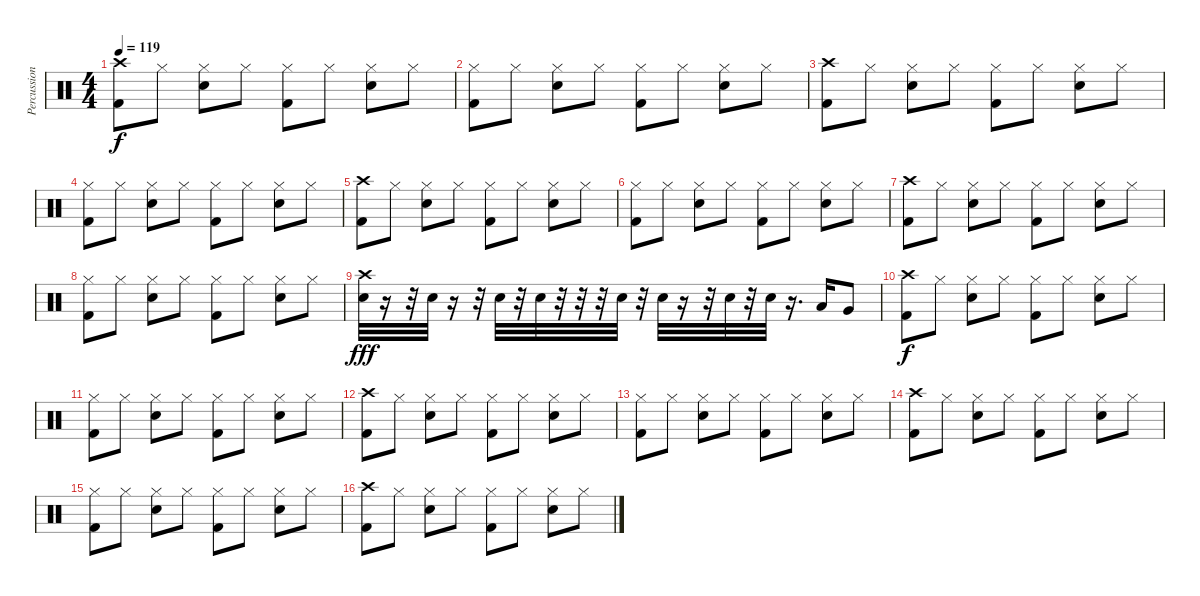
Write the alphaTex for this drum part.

\track ("Percussion" "Percussion") {instrument percussion}
\staff {score}
\articulation defaults
\ts (4 4)
\tempo 119
\clef neutral
\ks c
("Crash high (hit)" "Kick (hit) 2").8{dy f} "Hi-Hat (closed)".8 ("Hi-Hat (closed)" "Electric Snare (hit)").8 "Hi-Hat (closed)".8 ("Hi-Hat (closed)" "Kick (hit) 2").8 "Hi-Hat (closed)".8 ("Hi-Hat (closed)" "Electric Snare (hit)").8 "Hi-Hat (closed)".8 |
("Hi-Hat (closed)" "Kick (hit) 2").8 "Hi-Hat (closed)".8 ("Hi-Hat (closed)" "Electric Snare (hit)").8 "Hi-Hat (closed)".8 ("Hi-Hat (closed)" "Kick (hit) 2").8 "Hi-Hat (closed)".8 ("Hi-Hat (closed)" "Electric Snare (hit)").8 "Hi-Hat (closed)".8 |
("Crash high (hit)" "Kick (hit) 2").8 "Hi-Hat (closed)".8 ("Hi-Hat (closed)" "Electric Snare (hit)").8 "Hi-Hat (closed)".8 ("Hi-Hat (closed)" "Kick (hit) 2").8 "Hi-Hat (closed)".8 ("Hi-Hat (closed)" "Electric Snare (hit)").8 "Hi-Hat (closed)".8 |
("Hi-Hat (closed)" "Kick (hit) 2").8 "Hi-Hat (closed)".8 ("Hi-Hat (closed)" "Electric Snare (hit)").8 "Hi-Hat (closed)".8 ("Hi-Hat (closed)" "Kick (hit) 2").8 "Hi-Hat (closed)".8 ("Hi-Hat (closed)" "Electric Snare (hit)").8 "Hi-Hat (closed)".8 |
("Crash high (hit)" "Kick (hit) 2").8 "Hi-Hat (closed)".8 ("Hi-Hat (closed)" "Electric Snare (hit)").8 "Hi-Hat (closed)".8 ("Hi-Hat (closed)" "Kick (hit) 2").8 "Hi-Hat (closed)".8 ("Hi-Hat (closed)" "Electric Snare (hit)").8 "Hi-Hat (closed)".8 |
("Hi-Hat (closed)" "Kick (hit) 2").8 "Hi-Hat (closed)".8 ("Hi-Hat (closed)" "Electric Snare (hit)").8 "Hi-Hat (closed)".8 ("Hi-Hat (closed)" "Kick (hit) 2").8 "Hi-Hat (closed)".8 ("Hi-Hat (closed)" "Electric Snare (hit)").8 "Hi-Hat (closed)".8 |
("Crash high (hit)" "Kick (hit) 2").8 "Hi-Hat (closed)".8 ("Hi-Hat (closed)" "Electric Snare (hit)").8 "Hi-Hat (closed)".8 ("Hi-Hat (closed)" "Kick (hit) 2").8 "Hi-Hat (closed)".8 ("Hi-Hat (closed)" "Electric Snare (hit)").8 "Hi-Hat (closed)".8 |
("Hi-Hat (closed)" "Kick (hit) 2").8 "Hi-Hat (closed)".8 ("Hi-Hat (closed)" "Electric Snare (hit)").8 "Hi-Hat (closed)".8 ("Hi-Hat (closed)" "Kick (hit) 2").8 "Hi-Hat (closed)".8 ("Hi-Hat (closed)" "Electric Snare (hit)").8 "Hi-Hat (closed)".8 |
("Electric Snare (hit)" "Crash high (hit)").32{dy fff} r.16 r.32 "Electric Snare (hit)".32 r.16 r.32 "Electric Snare (hit)".32 r.32 "Electric Snare (hit)".32 r.32 r.32 r.32 "Electric Snare (hit)".32 r.32 "Electric Snare (hit)".32 r.16 r.32 "Electric Snare (hit)".32 r.32 "Electric Snare (hit)".32 r.16{d} "Low Tom (hit)".16 "Very Low Tom (hit)".8 |
("Crash high (hit)" "Kick (hit) 2").8{dy f} "Hi-Hat (closed)".8 ("Hi-Hat (closed)" "Electric Snare (hit)").8 "Hi-Hat (closed)".8 ("Hi-Hat (closed)" "Kick (hit) 2").8 "Hi-Hat (closed)".8 ("Hi-Hat (closed)" "Electric Snare (hit)").8 "Hi-Hat (closed)".8 |
("Hi-Hat (closed)" "Kick (hit) 2").8 "Hi-Hat (closed)".8 ("Hi-Hat (closed)" "Electric Snare (hit)").8 "Hi-Hat (closed)".8 ("Hi-Hat (closed)" "Kick (hit) 2").8 "Hi-Hat (closed)".8 ("Hi-Hat (closed)" "Electric Snare (hit)").8 "Hi-Hat (closed)".8 |
("Crash high (hit)" "Kick (hit) 2").8 "Hi-Hat (closed)".8 ("Hi-Hat (closed)" "Electric Snare (hit)").8 "Hi-Hat (closed)".8 ("Hi-Hat (closed)" "Kick (hit) 2").8 "Hi-Hat (closed)".8 ("Hi-Hat (closed)" "Electric Snare (hit)").8 "Hi-Hat (closed)".8 |
("Hi-Hat (closed)" "Kick (hit) 2").8 "Hi-Hat (closed)".8 ("Hi-Hat (closed)" "Electric Snare (hit)").8 "Hi-Hat (closed)".8 ("Hi-Hat (closed)" "Kick (hit) 2").8 "Hi-Hat (closed)".8 ("Hi-Hat (closed)" "Electric Snare (hit)").8 "Hi-Hat (closed)".8 |
("Crash high (hit)" "Kick (hit) 2").8 "Hi-Hat (closed)".8 ("Hi-Hat (closed)" "Electric Snare (hit)").8 "Hi-Hat (closed)".8 ("Hi-Hat (closed)" "Kick (hit) 2").8 "Hi-Hat (closed)".8 ("Hi-Hat (closed)" "Electric Snare (hit)").8 "Hi-Hat (closed)".8 |
("Hi-Hat (closed)" "Kick (hit) 2").8 "Hi-Hat (closed)".8 ("Hi-Hat (closed)" "Electric Snare (hit)").8 "Hi-Hat (closed)".8 ("Hi-Hat (closed)" "Kick (hit) 2").8 "Hi-Hat (closed)".8 ("Hi-Hat (closed)" "Electric Snare (hit)").8 "Hi-Hat (closed)".8 |
("Crash high (hit)" "Kick (hit) 2").8 "Hi-Hat (closed)".8 ("Hi-Hat (closed)" "Electric Snare (hit)").8 "Hi-Hat (closed)".8 ("Hi-Hat (closed)" "Kick (hit) 2").8 "Hi-Hat (closed)".8 ("Hi-Hat (closed)" "Electric Snare (hit)").8 "Hi-Hat (closed)".8
